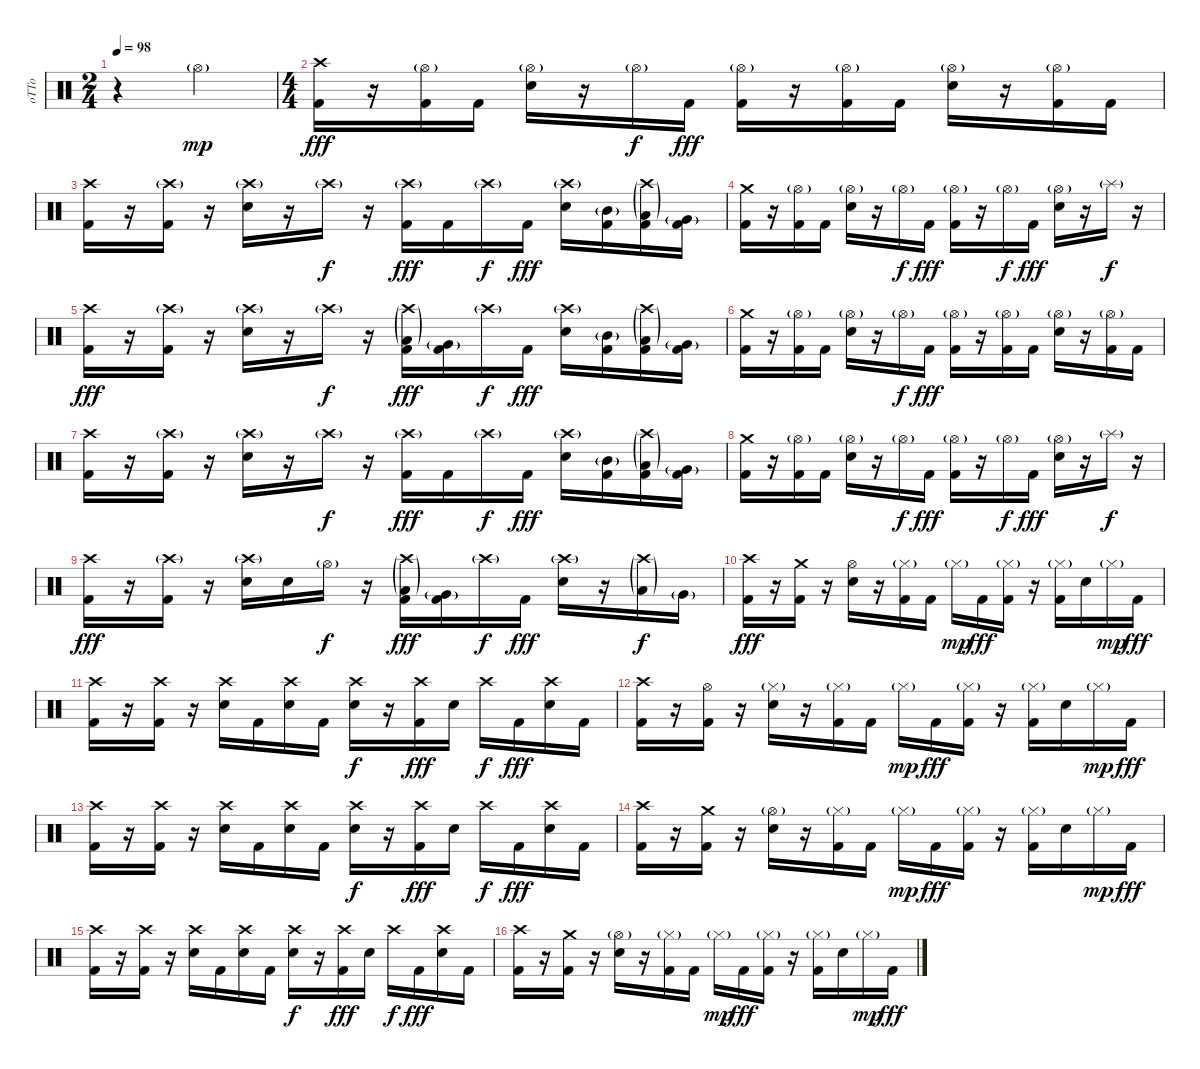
\track ("oTTo" "oTTo") {instrument percussion}
\staff {score}
\articulation defaults
\ts (2 4)
\tempo 98
\clef neutral
\ks c
r.4{dy fff} "Hi-Hat (open)"{g}.4{dy mp} |
\ts (4 4)
("Crash high (hit)" "Kick (hit) 2").16{dy fff} r.16 ("Hi-Hat (open)"{g} "Kick (hit) 2").16 "Kick (hit) 2".16 ("Hi-Hat (open)"{g} "Snare (hit) 2").16 r.16 "Hi-Hat (open)"{g}.16{dy f} "Kick (hit) 2".16{dy fff} ("Hi-Hat (open)"{g} "Kick (hit) 2").16 r.16 ("Hi-Hat (open)"{g} "Kick (hit) 2").16 "Kick (hit) 2".16 ("Hi-Hat (open)"{g} "Snare (hit) 2").16 r.16 ("Hi-Hat (open)"{g} "Kick (hit) 2").16 "Kick (hit) 2".16 |
("Crash high (hit)" "Kick (hit) 2").16 r.16 ("Crash high (hit)"{g} "Kick (hit) 2").16 r.16 ("Crash high (hit)"{g} "Snare (hit) 2").16 r.16 "Crash high (hit)"{g}.16{dy f} r.16 ("Crash high (hit)"{g} "Kick (hit) 2").16{dy fff} "Kick (hit) 2".16 "Crash high (hit)"{g}.16{dy f} "Kick (hit) 2".16{dy fff} ("Crash high (hit)"{g} "Snare (hit) 2").16 ("Mid Tom (hit)"{g} "Kick (hit) 2").16 ("Crash high (hit)"{g} "Low Tom (hit)"{g} "Kick (hit) 2").16 ("Very Low Tom (hit)"{g} "Kick (hit) 2").16 |
("Crash medium (hit)" "Kick (hit) 2").16 r.16 ("Hi-Hat (open)"{g} "Kick (hit) 2").16 "Kick (hit) 2".16 ("Hi-Hat (open)"{g} "Snare (hit) 2").16 r.16 "Hi-Hat (open)"{g}.16{dy f} "Kick (hit) 2".16{dy fff} ("Hi-Hat (open)"{g} "Kick (hit) 2").16 r.16 "Hi-Hat (open)"{g}.16{dy f} "Kick (hit) 2".16{dy fff} ("Hi-Hat (open)"{g} "Snare (hit) 2").16 r.16 "Splash (hit)"{g}.16{dy f} r.16 |
("Crash high (hit)" "Kick (hit) 2").16{dy fff} r.16 ("Crash high (hit)"{g} "Kick (hit) 2").16 r.16 ("Crash high (hit)"{g} "Snare (hit) 2").16 r.16 "Crash high (hit)"{g}.16{dy f} r.16 ("Crash high (hit)"{g} "Low Tom (hit)"{g} "Kick (hit) 2").16{dy fff} ("Very Low Tom (hit)"{g} "Kick (hit) 2").16 "Crash high (hit)"{g}.16{dy f} "Kick (hit) 2".16{dy fff} ("Crash high (hit)"{g} "Snare (hit) 2").16 ("Mid Tom (hit)"{g} "Kick (hit) 2").16 ("Crash high (hit)"{g} "Low Tom (hit)"{g} "Kick (hit) 2").16 ("Very Low Tom (hit)"{g} "Kick (hit) 2").16 |
("Crash medium (hit)" "Kick (hit) 2").16 r.16 ("Hi-Hat (open)"{g} "Kick (hit) 2").16 "Kick (hit) 2".16 ("Hi-Hat (open)"{g} "Snare (hit) 2").16 r.16 "Hi-Hat (open)"{g}.16{dy f} "Kick (hit) 2".16{dy fff} ("Hi-Hat (open)"{g} "Kick (hit) 2").16 r.16 ("Hi-Hat (open)"{g} "Kick (hit) 2").16 "Kick (hit) 2".16 ("Hi-Hat (open)"{g} "Snare (hit) 2").16 r.16 ("Hi-Hat (open)"{g} "Kick (hit) 2").16 "Kick (hit) 2".16 |
("Crash high (hit)" "Kick (hit) 2").16 r.16 ("Crash high (hit)"{g} "Kick (hit) 2").16 r.16 ("Crash high (hit)"{g} "Snare (hit) 2").16 r.16 "Crash high (hit)"{g}.16{dy f} r.16 ("Crash high (hit)"{g} "Kick (hit) 2").16{dy fff} "Kick (hit) 2".16 "Crash high (hit)"{g}.16{dy f} "Kick (hit) 2".16{dy fff} ("Crash high (hit)"{g} "Snare (hit) 2").16 ("Mid Tom (hit)"{g} "Kick (hit) 2").16 ("Crash high (hit)"{g} "Low Tom (hit)"{g} "Kick (hit) 2").16 ("Very Low Tom (hit)"{g} "Kick (hit) 2").16 |
("Crash medium (hit)" "Kick (hit) 2").16 r.16 ("Hi-Hat (open)"{g} "Kick (hit) 2").16 "Kick (hit) 2".16 ("Hi-Hat (open)"{g} "Snare (hit) 2").16 r.16 "Hi-Hat (open)"{g}.16{dy f} "Kick (hit) 2".16{dy fff} ("Hi-Hat (open)"{g} "Kick (hit) 2").16 r.16 "Hi-Hat (open)"{g}.16{dy f} "Kick (hit) 2".16{dy fff} ("Hi-Hat (open)"{g} "Snare (hit) 2").16 r.16 "Splash (hit)"{g}.16{dy f} r.16 |
("Crash high (hit)" "Kick (hit) 2").16{dy fff} r.16 ("Crash high (hit)"{g} "Kick (hit) 2").16 r.16 ("Crash high (hit)"{g} "Snare (hit) 2").16 "Snare (hit) 2".16 "Hi-Hat (open)"{g}.16{dy f} r.16 ("Crash high (hit)"{g} "Low Tom (hit)"{g} "Kick (hit) 2").16{dy fff} ("Very Low Tom (hit)"{g} "Kick (hit) 2").16 "Crash high (hit)"{g}.16{dy f} "Kick (hit) 2".16{dy fff} ("Crash high (hit)"{g} "Snare (hit) 2").16 r.16 ("Crash high (hit)"{g} "Low Tom (hit)"{g}).16{dy f} "Very Low Tom (hit)"{g}.16 |
("Crash high (hit)" "Kick (hit) 2").16{dy fff} r.16 ("Crash medium (hit)" "Kick (hit) 2").16 r.16 ("Hi-Hat (open)" "Snare (hit) 2").16 r.16 ("Hi-Hat (closed)"{g} "Kick (hit) 2").16 "Kick (hit) 2".16 "Hi-Hat (closed)"{g}.16{dy mp} "Kick (hit) 2".16{dy fff} ("Hi-Hat (closed)"{g} "Kick (hit) 2").16 r.16 ("Hi-Hat (closed)"{g} "Kick (hit) 2").16 "Snare (hit) 2".16 "Hi-Hat (closed)"{g}.16{dy mp} "Kick (hit) 2".16{dy fff} |
("Crash high (hit)" "Kick (hit) 2").16 r.16 ("Crash high (hit)" "Kick (hit) 2").16 r.16 ("Crash high (hit)" "Snare (hit) 2").16 "Kick (hit) 2".16 ("Crash high (hit)" "Snare (hit) 2").16 "Kick (hit) 2".16 ("Crash high (hit)" "Snare (hit) 2").16{dy f} r.16 ("Crash high (hit)" "Kick (hit) 2").16{dy fff} "Snare (hit) 2".16 "Crash high (hit)".16{dy f} "Kick (hit) 2".16{dy fff} ("Crash high (hit)" "Snare (hit) 2").16 "Kick (hit) 2".16 |
("Crash high (hit)" "Kick (hit) 2").16 r.16 ("Hi-Hat (open)" "Kick (hit) 2").16 r.16 ("Hi-Hat (closed)"{g} "Snare (hit) 2").16 r.16 ("Hi-Hat (closed)"{g} "Kick (hit) 2").16 "Kick (hit) 2".16 "Hi-Hat (closed)"{g}.16{dy mp} "Kick (hit) 2".16{dy fff} ("Hi-Hat (closed)"{g} "Kick (hit) 2").16 r.16 ("Hi-Hat (closed)"{g} "Kick (hit) 2").16 "Snare (hit) 2".16 "Hi-Hat (closed)"{g}.16{dy mp} "Kick (hit) 2".16{dy fff} |
("Crash high (hit)" "Kick (hit) 2").16 r.16 ("Crash high (hit)" "Kick (hit) 2").16 r.16 ("Crash high (hit)" "Snare (hit) 2").16 "Kick (hit) 2".16 ("Crash high (hit)" "Snare (hit) 2").16 "Kick (hit) 2".16 ("Crash high (hit)" "Snare (hit) 2").16{dy f} r.16 ("Crash high (hit)" "Kick (hit) 2").16{dy fff} "Snare (hit) 2".16 "Crash high (hit)".16{dy f} "Kick (hit) 2".16{dy fff} ("Crash high (hit)" "Snare (hit) 2").16 "Kick (hit) 2".16 |
("Crash high (hit)" "Kick (hit) 2").16 r.16 ("Crash medium (hit)" "Kick (hit) 2").16 r.16 ("Hi-Hat (open)"{g} "Snare (hit) 2").16 r.16 ("Hi-Hat (closed)"{g} "Kick (hit) 2").16 "Kick (hit) 2".16 "Hi-Hat (closed)"{g}.16{dy mp} "Kick (hit) 2".16{dy fff} ("Hi-Hat (closed)"{g} "Kick (hit) 2").16 r.16 ("Hi-Hat (closed)"{g} "Kick (hit) 2").16 "Snare (hit) 2".16 "Hi-Hat (closed)"{g}.16{dy mp} "Kick (hit) 2".16{dy fff} |
("Crash high (hit)" "Kick (hit) 2").16 r.16 ("Crash high (hit)" "Kick (hit) 2").16 r.16 ("Crash high (hit)" "Snare (hit) 2").16 "Kick (hit) 2".16 ("Crash high (hit)" "Snare (hit) 2").16 "Kick (hit) 2".16 ("Crash high (hit)" "Snare (hit) 2").16{dy f} r.16 ("Crash high (hit)" "Kick (hit) 2").16{dy fff} "Snare (hit) 2".16 "Crash high (hit)".16{dy f} "Kick (hit) 2".16{dy fff} ("Crash high (hit)" "Snare (hit) 2").16 "Kick (hit) 2".16 |
("Crash high (hit)" "Kick (hit) 2").16 r.16 ("Crash medium (hit)" "Kick (hit) 2").16 r.16 ("Hi-Hat (open)"{g} "Snare (hit) 2").16 r.16 ("Hi-Hat (closed)"{g} "Kick (hit) 2").16 "Kick (hit) 2".16 "Hi-Hat (closed)"{g}.16{dy mp} "Kick (hit) 2".16{dy fff} ("Hi-Hat (closed)"{g} "Kick (hit) 2").16 r.16 ("Hi-Hat (closed)"{g} "Kick (hit) 2").16 "Snare (hit) 2".16 "Hi-Hat (closed)"{g}.16{dy mp} "Kick (hit) 2".16{dy fff}
